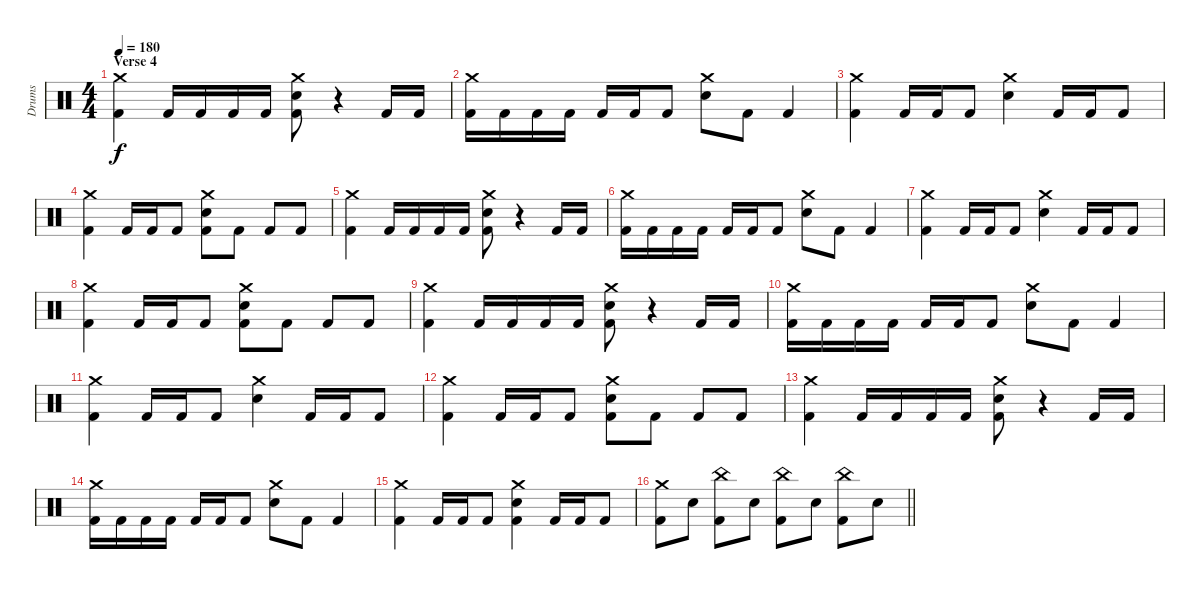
\track ("Drums" "Drums") {instrument percussion}
\staff {score}
\articulation defaults
\ts (4 4)
\section ("" "Verse 4")
\tempo 180
\clef neutral
\ks c
("Crash medium (hit)" "Kick (hit) 2").4{dy f} "Kick (hit) 2".16 "Kick (hit) 2".16 "Kick (hit) 2".16 "Kick (hit) 2".16 ("Crash medium (hit)" "Electric Snare (hit)" "Kick (hit) 2").8 r.4 "Kick (hit) 2".16 "Kick (hit) 2".16 |
("Crash medium (hit)" "Kick (hit) 2").16 "Kick (hit) 2".16 "Kick (hit) 2".16 "Kick (hit) 2".16 "Kick (hit) 2".16 "Kick (hit) 2".16 "Kick (hit) 2".8 ("Crash medium (hit)" "Electric Snare (hit)").8 "Kick (hit) 2".8 "Kick (hit) 2".4 |
("Crash medium (hit)" "Kick (hit) 2").4 "Kick (hit) 2".16 "Kick (hit) 2".16 "Kick (hit) 2".8 ("Crash medium (hit)" "Electric Snare (hit)").4 "Kick (hit) 2".16 "Kick (hit) 2".16 "Kick (hit) 2".8 |
("Crash medium (hit)" "Kick (hit) 2").4 "Kick (hit) 2".16 "Kick (hit) 2".16 "Kick (hit) 2".8 ("Crash medium (hit)" "Electric Snare (hit)" "Kick (hit) 2").8 "Kick (hit) 2".8 "Kick (hit) 2".8 "Kick (hit) 2".8 |
("Crash medium (hit)" "Kick (hit) 2").4 "Kick (hit) 2".16 "Kick (hit) 2".16 "Kick (hit) 2".16 "Kick (hit) 2".16 ("Crash medium (hit)" "Electric Snare (hit)" "Kick (hit) 2").8 r.4 "Kick (hit) 2".16 "Kick (hit) 2".16 |
("Crash medium (hit)" "Kick (hit) 2").16 "Kick (hit) 2".16 "Kick (hit) 2".16 "Kick (hit) 2".16 "Kick (hit) 2".16 "Kick (hit) 2".16 "Kick (hit) 2".8 ("Crash medium (hit)" "Electric Snare (hit)").8 "Kick (hit) 2".8 "Kick (hit) 2".4 |
("Crash medium (hit)" "Kick (hit) 2").4 "Kick (hit) 2".16 "Kick (hit) 2".16 "Kick (hit) 2".8 ("Crash medium (hit)" "Electric Snare (hit)").4 "Kick (hit) 2".16 "Kick (hit) 2".16 "Kick (hit) 2".8 |
("Crash medium (hit)" "Kick (hit) 2").4 "Kick (hit) 2".16 "Kick (hit) 2".16 "Kick (hit) 2".8 ("Crash medium (hit)" "Electric Snare (hit)" "Kick (hit) 2").8 "Kick (hit) 2".8 "Kick (hit) 2".8 "Kick (hit) 2".8 |
("Crash medium (hit)" "Kick (hit) 2").4 "Kick (hit) 2".16 "Kick (hit) 2".16 "Kick (hit) 2".16 "Kick (hit) 2".16 ("Crash medium (hit)" "Electric Snare (hit)" "Kick (hit) 2").8 r.4 "Kick (hit) 2".16 "Kick (hit) 2".16 |
("Crash medium (hit)" "Kick (hit) 2").16 "Kick (hit) 2".16 "Kick (hit) 2".16 "Kick (hit) 2".16 "Kick (hit) 2".16 "Kick (hit) 2".16 "Kick (hit) 2".8 ("Crash medium (hit)" "Electric Snare (hit)").8 "Kick (hit) 2".8 "Kick (hit) 2".4 |
("Crash medium (hit)" "Kick (hit) 2").4 "Kick (hit) 2".16 "Kick (hit) 2".16 "Kick (hit) 2".8 ("Crash medium (hit)" "Electric Snare (hit)").4 "Kick (hit) 2".16 "Kick (hit) 2".16 "Kick (hit) 2".8 |
("Crash medium (hit)" "Kick (hit) 2").4 "Kick (hit) 2".16 "Kick (hit) 2".16 "Kick (hit) 2".8 ("Crash medium (hit)" "Electric Snare (hit)" "Kick (hit) 2").8 "Kick (hit) 2".8 "Kick (hit) 2".8 "Kick (hit) 2".8 |
("Crash medium (hit)" "Kick (hit) 2").4 "Kick (hit) 2".16 "Kick (hit) 2".16 "Kick (hit) 2".16 "Kick (hit) 2".16 ("Crash medium (hit)" "Electric Snare (hit)" "Kick (hit) 2").8 r.4 "Kick (hit) 2".16 "Kick (hit) 2".16 |
("Crash medium (hit)" "Kick (hit) 2").16 "Kick (hit) 2".16 "Kick (hit) 2".16 "Kick (hit) 2".16 "Kick (hit) 2".16 "Kick (hit) 2".16 "Kick (hit) 2".8 ("Crash medium (hit)" "Electric Snare (hit)").8 "Kick (hit) 2".8 "Kick (hit) 2".4 |
("Crash medium (hit)" "Kick (hit) 2").4 "Kick (hit) 2".16 "Kick (hit) 2".16 "Kick (hit) 2".8 ("Crash medium (hit)" "Electric Snare (hit)" "Kick (hit) 2").4 "Kick (hit) 2".16 "Kick (hit) 2".16 "Kick (hit) 2".8 |
\barLineRight lightlight
("Crash medium (hit)" "Kick (hit) 2").8 "Electric Snare (hit)".8 ("China (hit)" "Kick (hit) 2").8 "Electric Snare (hit)".8 ("China (hit)" "Kick (hit) 2").8 "Electric Snare (hit)".8 ("China (hit)" "Kick (hit) 2").8 "Electric Snare (hit)".8
